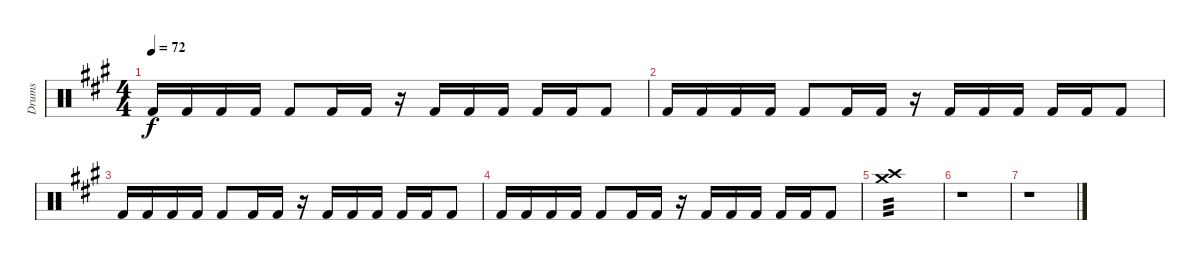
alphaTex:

\track ("Drums" "Drums") {instrument percussion}
\staff {score}
\articulation defaults
\ts (4 4)
\tempo 72
\clef neutral
\ks a "Kick (hit) 2".16{dy f} "Kick (hit) 2".16 "Kick (hit) 2".16 "Kick (hit) 2".16 "Kick (hit) 2".8 "Kick (hit) 2".16 "Kick (hit) 2".16
r.16 "Kick (hit) 2".16 "Kick (hit) 2".16 "Kick (hit) 2".16 "Kick (hit) 2".16 "Kick (hit) 2".16 "Kick (hit) 2".8 |
"Kick (hit) 2".16 "Kick (hit) 2".16 "Kick (hit) 2".16 "Kick (hit) 2".16 "Kick (hit) 2".8 "Kick (hit) 2".16 "Kick (hit) 2".16 r.16 "Kick (hit) 2".16 "Kick (hit) 2".16 "Kick (hit) 2".16 "Kick (hit) 2".16 "Kick (hit) 2".16 "Kick (hit) 2".8 |
"Kick (hit) 2".16 "Kick (hit) 2".16 "Kick (hit) 2".16 "Kick (hit) 2".16 "Kick (hit) 2".8 "Kick (hit) 2".16 "Kick (hit) 2".16 r.16 "Kick (hit) 2".16 "Kick (hit) 2".16 "Kick (hit) 2".16 "Kick (hit) 2".16 "Kick (hit) 2".16 "Kick (hit) 2".8 |
"Kick (hit) 2".16 "Kick (hit) 2".16 "Kick (hit) 2".16 "Kick (hit) 2".16 "Kick (hit) 2".8 "Kick (hit) 2".16 "Kick (hit) 2".16 r.16 "Kick (hit) 2".16 "Kick (hit) 2".16 "Kick (hit) 2".16 "Kick (hit) 2".16 "Kick (hit) 2".16 "Kick (hit) 2".8 |
("Crash medium (hit)" "Crash high (hit)").1{tp 3 volume 6} |
r.1 |
r.1
